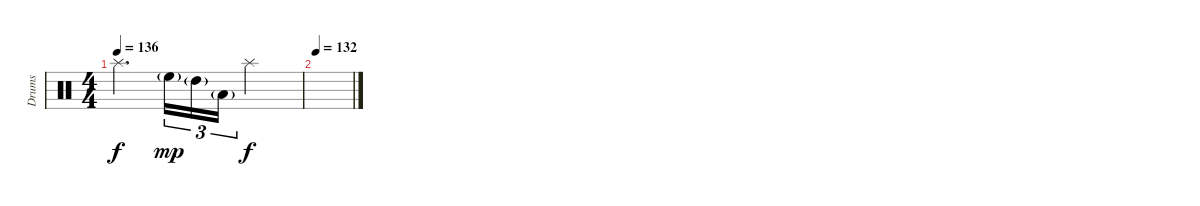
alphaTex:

\track ("Drums" "Drums") {instrument percussion}
\staff {score}
\articulation defaults
\ts (4 4)
\tempo 136
\clef neutral
\ks c "Splash (hit)".4{d dy f} "High Floor Tom (hit)"{g}.16{tu (3 2) dy mp} "High Tom (hit)"{g}.16{tu (3 2)} "Low Tom (hit)"{g}.16{tu (3 2)} "Splash (hit)".2{dy f}
|
\tempo 132
